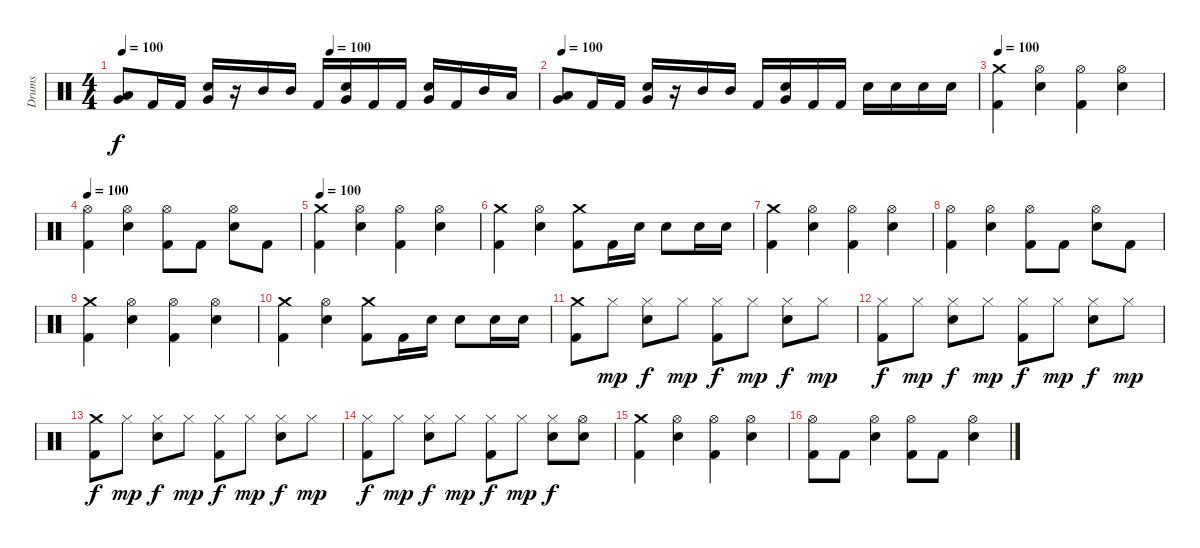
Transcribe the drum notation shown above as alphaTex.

\track ("Drums" "Drums") {instrument percussion}
\staff {score}
\articulation defaults
\ts (4 4)
\tempo 100
\tempo (100 0.5)
\clef neutral
\ks c
("Very Low Tom (hit)" "Low Tom (hit)").8{dy f} "Kick (hit) 2".16 "Kick (hit) 2".16 ("Very Low Tom (hit)" "Electric Snare (hit)").16 r.16 "Mid Tom (hit)".16 "Mid Tom (hit)".16 "Kick (hit) 2".16 ("Electric Snare (hit)" "Very Low Tom (hit)").16 "Kick (hit) 2".16 "Kick (hit) 2".16 ("Electric Snare (hit)" "Very Low Tom (hit)").16 "Kick (hit) 2".16 "Mid Tom (hit)".16 "Low Tom (hit)".16 |
\tempo 100
("Very Low Tom (hit)" "Low Tom (hit)").8 "Kick (hit) 2".16 "Kick (hit) 2".16 ("Very Low Tom (hit)" "Electric Snare (hit)").16 r.16 "Mid Tom (hit)".16 "Mid Tom (hit)".16 "Kick (hit) 2".16 ("Electric Snare (hit)" "Very Low Tom (hit)").16 "Kick (hit) 2".16 "Kick (hit) 2".16 "Electric Snare (hit)".16 "Electric Snare (hit)".16 "Electric Snare (hit)".16 "Electric Snare (hit)".16 |
\tempo 100
("Kick (hit) 2" "Crash medium (hit)").4 ("Electric Snare (hit)" "Hi-Hat (open)").4 ("Kick (hit) 2" "Hi-Hat (open)").4 ("Electric Snare (hit)" "Hi-Hat (open)").4 |
\tempo 100
("Kick (hit) 2" "Hi-Hat (open)").4 ("Electric Snare (hit)" "Hi-Hat (open)").4 ("Kick (hit) 2" "Hi-Hat (open)").8 "Kick (hit) 2".8 ("Electric Snare (hit)" "Hi-Hat (open)").8 "Kick (hit) 2".8 |
\tempo 100
("Kick (hit) 2" "Crash medium (hit)").4 ("Electric Snare (hit)" "Hi-Hat (open)").4 ("Kick (hit) 2" "Hi-Hat (open)").4 ("Electric Snare (hit)" "Hi-Hat (open)").4 |
("Kick (hit) 2" "Crash medium (hit)").4 ("Electric Snare (hit)" "Hi-Hat (open)").4 ("Kick (hit) 2" "Crash medium (hit)").8 "Kick (hit) 2".16 "Electric Snare (hit)".16 "Electric Snare (hit)".8 "Electric Snare (hit)".16 "Electric Snare (hit)".16 |
("Kick (hit) 2" "Crash medium (hit)").4 ("Electric Snare (hit)" "Hi-Hat (open)").4 ("Kick (hit) 2" "Hi-Hat (open)").4 ("Electric Snare (hit)" "Hi-Hat (open)").4 |
("Kick (hit) 2" "Hi-Hat (open)").4 ("Electric Snare (hit)" "Hi-Hat (open)").4 ("Kick (hit) 2" "Hi-Hat (open)").8 "Kick (hit) 2".8 ("Electric Snare (hit)" "Hi-Hat (open)").8 "Kick (hit) 2".8 |
("Kick (hit) 2" "Crash medium (hit)").4 ("Electric Snare (hit)" "Hi-Hat (open)").4 ("Kick (hit) 2" "Hi-Hat (open)").4 ("Electric Snare (hit)" "Hi-Hat (open)").4 |
("Kick (hit) 2" "Crash medium (hit)").4 ("Electric Snare (hit)" "Hi-Hat (open)").4 ("Kick (hit) 2" "Crash medium (hit)").8 "Kick (hit) 2".16 "Electric Snare (hit)".16 "Electric Snare (hit)".8 "Electric Snare (hit)".16 "Electric Snare (hit)".16 |
("Kick (hit) 2" "Crash medium (hit)").8 "Hi-Hat (closed)".8{dy mp} ("Hi-Hat (closed)" "Electric Snare (hit)").8{dy f} "Hi-Hat (closed)".8{dy mp} ("Hi-Hat (closed)" "Kick (hit) 2").8{dy f} "Hi-Hat (closed)".8{dy mp} ("Hi-Hat (closed)" "Electric Snare (hit)").8{dy f} "Hi-Hat (closed)".8{dy mp} |
("Hi-Hat (closed)" "Kick (hit) 2").8{dy f} "Hi-Hat (closed)".8{dy mp} ("Hi-Hat (closed)" "Electric Snare (hit)").8{dy f} "Hi-Hat (closed)".8{dy mp} ("Hi-Hat (closed)" "Kick (hit) 2").8{dy f} "Hi-Hat (closed)".8{dy mp} ("Hi-Hat (closed)" "Electric Snare (hit)").8{dy f} "Hi-Hat (closed)".8{dy mp} |
("Kick (hit) 2" "Crash medium (hit)").8{dy f} "Hi-Hat (closed)".8{dy mp} ("Hi-Hat (closed)" "Electric Snare (hit)").8{dy f} "Hi-Hat (closed)".8{dy mp} ("Hi-Hat (closed)" "Kick (hit) 2").8{dy f} "Hi-Hat (closed)".8{dy mp} ("Hi-Hat (closed)" "Electric Snare (hit)").8{dy f} "Hi-Hat (closed)".8{dy mp} |
("Hi-Hat (closed)" "Kick (hit) 2").8{dy f} "Hi-Hat (closed)".8{dy mp} ("Hi-Hat (closed)" "Electric Snare (hit)").8{dy f} "Hi-Hat (closed)".8{dy mp} ("Hi-Hat (closed)" "Kick (hit) 2").8{dy f} "Hi-Hat (closed)".8{dy mp} ("Hi-Hat (closed)" "Electric Snare (hit)").8{dy f} ("Electric Snare (hit)" "Hi-Hat (open)").8 |
("Kick (hit) 2" "Crash medium (hit)").4 ("Electric Snare (hit)" "Hi-Hat (open)").4 ("Kick (hit) 2" "Hi-Hat (open)").4 ("Electric Snare (hit)" "Hi-Hat (open)").4 |
("Kick (hit) 2" "Hi-Hat (open)").8 "Kick (hit) 2".8 ("Electric Snare (hit)" "Hi-Hat (open)").4 ("Kick (hit) 2" "Hi-Hat (open)").8 "Kick (hit) 2".8 ("Electric Snare (hit)" "Hi-Hat (open)").4
